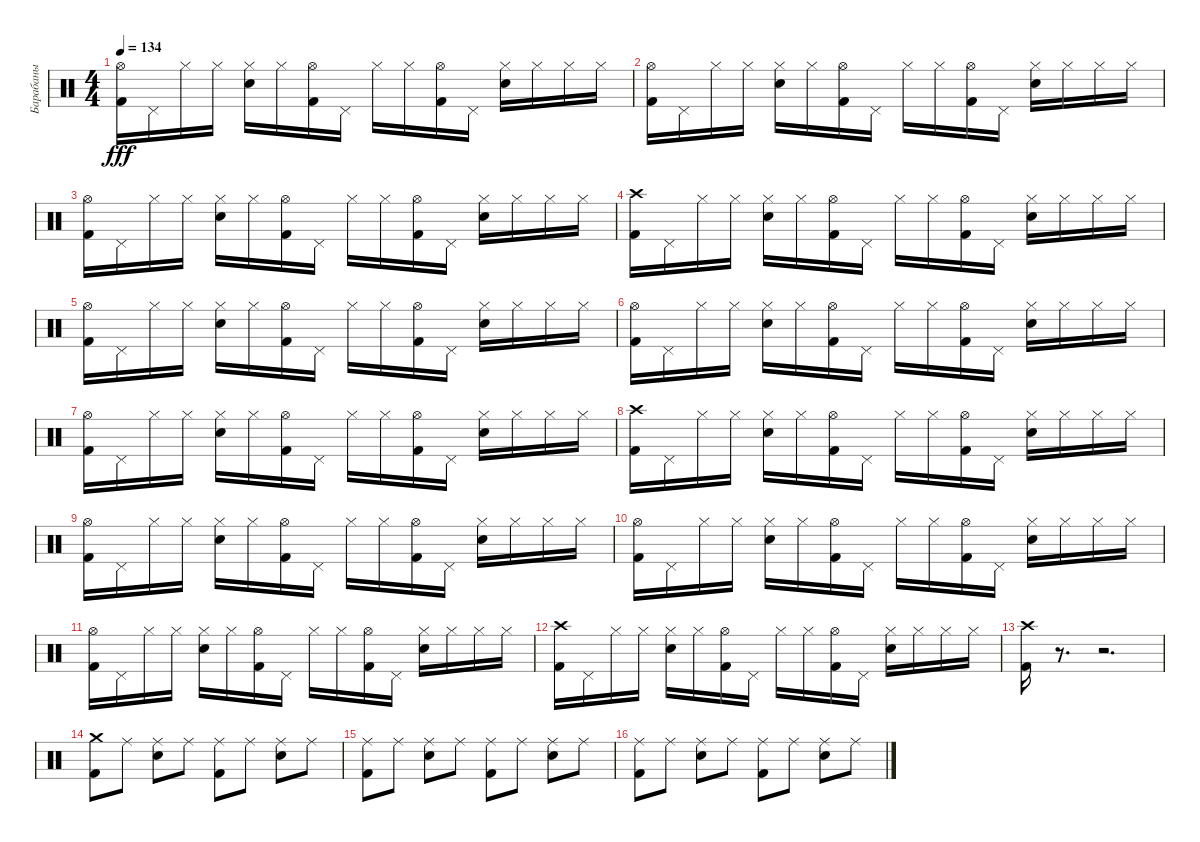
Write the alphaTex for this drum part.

\track ("Барабаны" "Барабаны") {instrument percussion}
\staff {score}
\articulation defaults
\ts (4 4)
\tempo 134
\clef neutral
\ks c
("Hi-Hat (open)" "Kick (hit) 2").16{dy fff} "Pedal Hi-Hat (hit)".16 "Hi-Hat (closed)".16 "Hi-Hat (closed)".16 ("Hi-Hat (closed)" "Electric Snare (hit)").16 "Hi-Hat (closed)".16 ("Hi-Hat (open)" "Kick (hit) 2").16 "Pedal Hi-Hat (hit)".16 "Hi-Hat (closed)".16 "Hi-Hat (closed)".16 ("Hi-Hat (open)" "Kick (hit) 2").16 "Pedal Hi-Hat (hit)".16 ("Hi-Hat (closed)" "Electric Snare (hit)").16 "Hi-Hat (closed)".16 "Hi-Hat (closed)".16 "Hi-Hat (closed)".16 |
("Hi-Hat (open)" "Kick (hit) 2").16 "Pedal Hi-Hat (hit)".16 "Hi-Hat (closed)".16 "Hi-Hat (closed)".16 ("Hi-Hat (closed)" "Electric Snare (hit)").16 "Hi-Hat (closed)".16 ("Hi-Hat (open)" "Kick (hit) 2").16 "Pedal Hi-Hat (hit)".16 "Hi-Hat (closed)".16 "Hi-Hat (closed)".16 ("Hi-Hat (open)" "Kick (hit) 2").16 "Pedal Hi-Hat (hit)".16 ("Hi-Hat (closed)" "Electric Snare (hit)").16 "Hi-Hat (closed)".16 "Hi-Hat (closed)".16 "Hi-Hat (closed)".16 |
("Hi-Hat (open)" "Kick (hit) 2").16 "Pedal Hi-Hat (hit)".16 "Hi-Hat (closed)".16 "Hi-Hat (closed)".16 ("Hi-Hat (closed)" "Electric Snare (hit)").16 "Hi-Hat (closed)".16 ("Hi-Hat (open)" "Kick (hit) 2").16 "Pedal Hi-Hat (hit)".16 "Hi-Hat (closed)".16 "Hi-Hat (closed)".16 ("Hi-Hat (open)" "Kick (hit) 2").16 "Pedal Hi-Hat (hit)".16 ("Hi-Hat (closed)" "Electric Snare (hit)").16 "Hi-Hat (closed)".16 "Hi-Hat (closed)".16 "Hi-Hat (closed)".16 |
("Crash high (hit)" "Kick (hit) 2").16 "Pedal Hi-Hat (hit)".16 "Hi-Hat (closed)".16 "Hi-Hat (closed)".16 ("Hi-Hat (closed)" "Electric Snare (hit)").16 "Hi-Hat (closed)".16 ("Hi-Hat (open)" "Kick (hit) 2").16 "Pedal Hi-Hat (hit)".16 "Hi-Hat (closed)".16 "Hi-Hat (closed)".16 ("Hi-Hat (open)" "Kick (hit) 2").16 "Pedal Hi-Hat (hit)".16 ("Hi-Hat (closed)" "Electric Snare (hit)").16 "Hi-Hat (closed)".16 "Hi-Hat (closed)".16 "Hi-Hat (closed)".16 |
("Hi-Hat (open)" "Kick (hit) 2").16 "Pedal Hi-Hat (hit)".16 "Hi-Hat (closed)".16 "Hi-Hat (closed)".16 ("Hi-Hat (closed)" "Electric Snare (hit)").16 "Hi-Hat (closed)".16 ("Hi-Hat (open)" "Kick (hit) 2").16 "Pedal Hi-Hat (hit)".16 "Hi-Hat (closed)".16 "Hi-Hat (closed)".16 ("Hi-Hat (open)" "Kick (hit) 2").16 "Pedal Hi-Hat (hit)".16 ("Hi-Hat (closed)" "Electric Snare (hit)").16 "Hi-Hat (closed)".16 "Hi-Hat (closed)".16 "Hi-Hat (closed)".16 |
("Hi-Hat (open)" "Kick (hit) 2").16 "Pedal Hi-Hat (hit)".16 "Hi-Hat (closed)".16 "Hi-Hat (closed)".16 ("Hi-Hat (closed)" "Electric Snare (hit)").16 "Hi-Hat (closed)".16 ("Hi-Hat (open)" "Kick (hit) 2").16 "Pedal Hi-Hat (hit)".16 "Hi-Hat (closed)".16 "Hi-Hat (closed)".16 ("Hi-Hat (open)" "Kick (hit) 2").16 "Pedal Hi-Hat (hit)".16 ("Hi-Hat (closed)" "Electric Snare (hit)").16 "Hi-Hat (closed)".16 "Hi-Hat (closed)".16 "Hi-Hat (closed)".16 |
("Hi-Hat (open)" "Kick (hit) 2").16 "Pedal Hi-Hat (hit)".16 "Hi-Hat (closed)".16 "Hi-Hat (closed)".16 ("Hi-Hat (closed)" "Electric Snare (hit)").16 "Hi-Hat (closed)".16 ("Hi-Hat (open)" "Kick (hit) 2").16 "Pedal Hi-Hat (hit)".16 "Hi-Hat (closed)".16 "Hi-Hat (closed)".16 ("Hi-Hat (open)" "Kick (hit) 2").16 "Pedal Hi-Hat (hit)".16 ("Hi-Hat (closed)" "Electric Snare (hit)").16 "Hi-Hat (closed)".16 "Hi-Hat (closed)".16 "Hi-Hat (closed)".16 |
("Crash high (hit)" "Kick (hit) 2").16 "Pedal Hi-Hat (hit)".16 "Hi-Hat (closed)".16 "Hi-Hat (closed)".16 ("Hi-Hat (closed)" "Electric Snare (hit)").16 "Hi-Hat (closed)".16 ("Hi-Hat (open)" "Kick (hit) 2").16 "Pedal Hi-Hat (hit)".16 "Hi-Hat (closed)".16 "Hi-Hat (closed)".16 ("Hi-Hat (open)" "Kick (hit) 2").16 "Pedal Hi-Hat (hit)".16 ("Hi-Hat (closed)" "Electric Snare (hit)").16 "Hi-Hat (closed)".16 "Hi-Hat (closed)".16 "Hi-Hat (closed)".16 |
("Hi-Hat (open)" "Kick (hit) 2").16 "Pedal Hi-Hat (hit)".16 "Hi-Hat (closed)".16 "Hi-Hat (closed)".16 ("Hi-Hat (closed)" "Electric Snare (hit)").16 "Hi-Hat (closed)".16 ("Hi-Hat (open)" "Kick (hit) 2").16 "Pedal Hi-Hat (hit)".16 "Hi-Hat (closed)".16 "Hi-Hat (closed)".16 ("Hi-Hat (open)" "Kick (hit) 2").16 "Pedal Hi-Hat (hit)".16 ("Hi-Hat (closed)" "Electric Snare (hit)").16 "Hi-Hat (closed)".16 "Hi-Hat (closed)".16 "Hi-Hat (closed)".16 |
("Hi-Hat (open)" "Kick (hit) 2").16 "Pedal Hi-Hat (hit)".16 "Hi-Hat (closed)".16 "Hi-Hat (closed)".16 ("Hi-Hat (closed)" "Electric Snare (hit)").16 "Hi-Hat (closed)".16 ("Hi-Hat (open)" "Kick (hit) 2").16 "Pedal Hi-Hat (hit)".16 "Hi-Hat (closed)".16 "Hi-Hat (closed)".16 ("Hi-Hat (open)" "Kick (hit) 2").16 "Pedal Hi-Hat (hit)".16 ("Hi-Hat (closed)" "Electric Snare (hit)").16 "Hi-Hat (closed)".16 "Hi-Hat (closed)".16 "Hi-Hat (closed)".16 |
("Hi-Hat (open)" "Kick (hit) 2").16 "Pedal Hi-Hat (hit)".16 "Hi-Hat (closed)".16 "Hi-Hat (closed)".16 ("Hi-Hat (closed)" "Electric Snare (hit)").16 "Hi-Hat (closed)".16 ("Hi-Hat (open)" "Kick (hit) 2").16 "Pedal Hi-Hat (hit)".16 "Hi-Hat (closed)".16 "Hi-Hat (closed)".16 ("Hi-Hat (open)" "Kick (hit) 2").16 "Pedal Hi-Hat (hit)".16 ("Hi-Hat (closed)" "Electric Snare (hit)").16 "Hi-Hat (closed)".16 "Hi-Hat (closed)".16 "Hi-Hat (closed)".16 |
("Crash high (hit)" "Kick (hit) 2").16 "Pedal Hi-Hat (hit)".16 "Hi-Hat (closed)".16 "Hi-Hat (closed)".16 ("Hi-Hat (closed)" "Electric Snare (hit)").16 "Hi-Hat (closed)".16 ("Hi-Hat (open)" "Kick (hit) 2").16 "Pedal Hi-Hat (hit)".16 "Hi-Hat (closed)".16 "Hi-Hat (closed)".16 ("Hi-Hat (open)" "Kick (hit) 2").16 "Pedal Hi-Hat (hit)".16 ("Hi-Hat (closed)" "Electric Snare (hit)").16 "Hi-Hat (closed)".16 "Hi-Hat (closed)".16 "Hi-Hat (closed)".16 |
("Crash high (hit)" "Kick (hit) 2").16 r.8{d} r.2{d} |
("Crash medium (hit)" "Kick (hit) 2").8 "Ride (middle)".8 ("Ride (middle)" "Electric Snare (hit)").8 "Ride (middle)".8 ("Ride (middle)" "Kick (hit) 2").8 "Ride (middle)".8 ("Ride (middle)" "Electric Snare (hit)").8 "Ride (middle)".8 |
("Ride (middle)" "Kick (hit) 2").8 "Ride (middle)".8 ("Ride (middle)" "Electric Snare (hit)").8 "Ride (middle)".8 ("Ride (middle)" "Kick (hit) 2").8 "Ride (middle)".8 ("Ride (middle)" "Electric Snare (hit)").8 "Ride (middle)".8 |
("Ride (middle)" "Kick (hit) 2").8 "Ride (middle)".8 ("Ride (middle)" "Electric Snare (hit)").8 "Ride (middle)".8 ("Ride (middle)" "Kick (hit) 2").8 "Ride (middle)".8 ("Ride (middle)" "Electric Snare (hit)").8 "Ride (middle)".8
